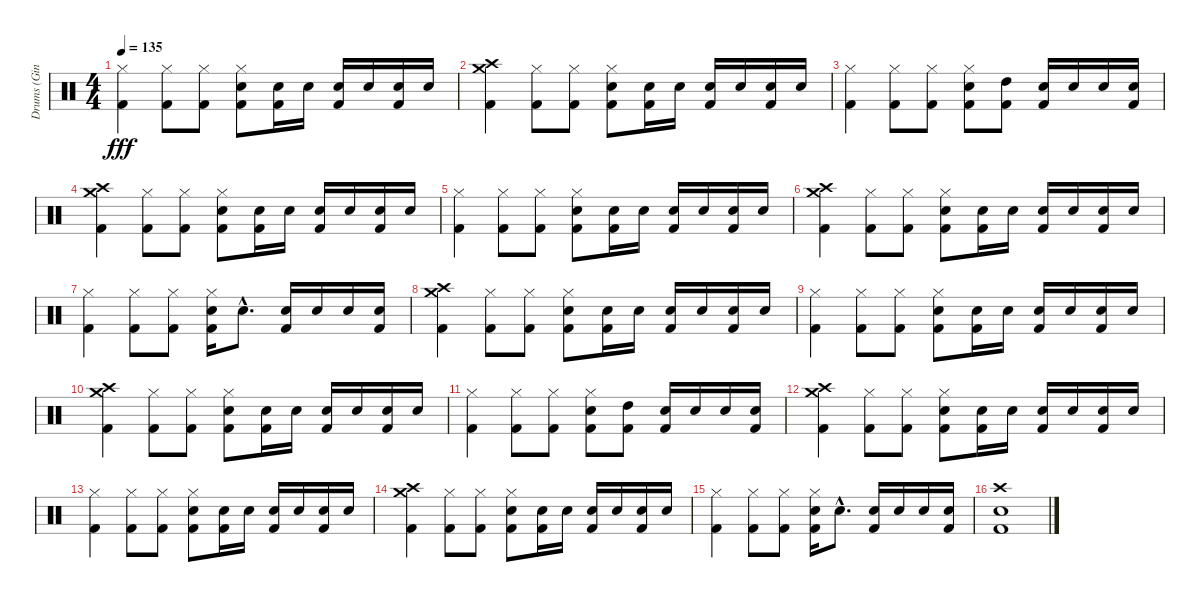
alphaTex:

\track ("Drums (Ginger Fish)" "Drums (Gin") {instrument percussion}
\staff {score}
\articulation defaults
\ts (4 4)
\tempo 135
\clef neutral
\ks c
("Hi-Hat (closed)" "Kick (hit) 2").4{dy fff} ("Hi-Hat (closed)" "Kick (hit) 2").8 ("Hi-Hat (closed)" "Kick (hit) 2").8 ("Hi-Hat (closed)" "Electric Snare (hit)" "Kick (hit) 2").8 ("Electric Snare (hit)" "Kick (hit) 2").16 "Electric Snare (hit)".16 ("Electric Snare (hit)" "Kick (hit) 2").16 "Electric Snare (hit)".16 ("Electric Snare (hit)" "Kick (hit) 2").16 "Electric Snare (hit)".16 |
("Crash high (hit)" "Crash medium (hit)" "Kick (hit) 2").4 ("Hi-Hat (closed)" "Kick (hit) 2").8 ("Hi-Hat (closed)" "Kick (hit) 2").8 ("Hi-Hat (closed)" "Electric Snare (hit)" "Kick (hit) 2").8 ("Electric Snare (hit)" "Kick (hit) 2").16 "Electric Snare (hit)".16 ("Electric Snare (hit)" "Kick (hit) 2").16 "Electric Snare (hit)".16 ("Electric Snare (hit)" "Kick (hit) 2").16 "Electric Snare (hit)".16 |
("Hi-Hat (closed)" "Kick (hit) 2").4 ("Hi-Hat (closed)" "Kick (hit) 2").8 ("Hi-Hat (closed)" "Kick (hit) 2").8 ("Hi-Hat (closed)" "Electric Snare (hit)" "Kick (hit) 2").8 ("High Tom (hit)" "Kick (hit) 2").8 ("Electric Snare (hit)" "Kick (hit) 2").16 "Electric Snare (hit)".16 "Electric Snare (hit)".16 ("Electric Snare (hit)" "Kick (hit) 2").16 |
("Crash high (hit)" "Crash medium (hit)" "Kick (hit) 2").4 ("Hi-Hat (closed)" "Kick (hit) 2").8 ("Hi-Hat (closed)" "Kick (hit) 2").8 ("Hi-Hat (closed)" "Electric Snare (hit)" "Kick (hit) 2").8 ("Electric Snare (hit)" "Kick (hit) 2").16 "Electric Snare (hit)".16 ("Electric Snare (hit)" "Kick (hit) 2").16 "Electric Snare (hit)".16 ("Electric Snare (hit)" "Kick (hit) 2").16 "Electric Snare (hit)".16 |
("Hi-Hat (closed)" "Kick (hit) 2").4 ("Hi-Hat (closed)" "Kick (hit) 2").8 ("Hi-Hat (closed)" "Kick (hit) 2").8 ("Hi-Hat (closed)" "Electric Snare (hit)" "Kick (hit) 2").8 ("Electric Snare (hit)" "Kick (hit) 2").16 "Electric Snare (hit)".16 ("Electric Snare (hit)" "Kick (hit) 2").16 "Electric Snare (hit)".16 ("Electric Snare (hit)" "Kick (hit) 2").16 "Electric Snare (hit)".16 |
("Crash high (hit)" "Crash medium (hit)" "Kick (hit) 2").4 ("Hi-Hat (closed)" "Kick (hit) 2").8 ("Hi-Hat (closed)" "Kick (hit) 2").8 ("Hi-Hat (closed)" "Electric Snare (hit)" "Kick (hit) 2").8 ("Electric Snare (hit)" "Kick (hit) 2").16 "Electric Snare (hit)".16 ("Electric Snare (hit)" "Kick (hit) 2").16 "Electric Snare (hit)".16 ("Electric Snare (hit)" "Kick (hit) 2").16 "Electric Snare (hit)".16 |
("Hi-Hat (closed)" "Kick (hit) 2").4 ("Hi-Hat (closed)" "Kick (hit) 2").8 ("Hi-Hat (closed)" "Kick (hit) 2").8 ("Hi-Hat (closed)" "Electric Snare (hit)" "Kick (hit) 2").16 "Electric Snare (hit)"{hac}.8{d} ("Electric Snare (hit)" "Kick (hit) 2").16 "Electric Snare (hit)".16 "Electric Snare (hit)".16 ("Electric Snare (hit)" "Kick (hit) 2").16 |
("Crash high (hit)" "Crash medium (hit)" "Kick (hit) 2").4 ("Hi-Hat (closed)" "Kick (hit) 2").8 ("Hi-Hat (closed)" "Kick (hit) 2").8 ("Hi-Hat (closed)" "Electric Snare (hit)" "Kick (hit) 2").8 ("Electric Snare (hit)" "Kick (hit) 2").16 "Electric Snare (hit)".16 ("Electric Snare (hit)" "Kick (hit) 2").16 "Electric Snare (hit)".16 ("Electric Snare (hit)" "Kick (hit) 2").16 "Electric Snare (hit)".16 |
("Hi-Hat (closed)" "Kick (hit) 2").4 ("Hi-Hat (closed)" "Kick (hit) 2").8 ("Hi-Hat (closed)" "Kick (hit) 2").8 ("Hi-Hat (closed)" "Electric Snare (hit)" "Kick (hit) 2").8 ("Electric Snare (hit)" "Kick (hit) 2").16 "Electric Snare (hit)".16 ("Electric Snare (hit)" "Kick (hit) 2").16 "Electric Snare (hit)".16 ("Electric Snare (hit)" "Kick (hit) 2").16 "Electric Snare (hit)".16 |
("Crash high (hit)" "Crash medium (hit)" "Kick (hit) 2").4 ("Hi-Hat (closed)" "Kick (hit) 2").8 ("Hi-Hat (closed)" "Kick (hit) 2").8 ("Hi-Hat (closed)" "Electric Snare (hit)" "Kick (hit) 2").8 ("Electric Snare (hit)" "Kick (hit) 2").16 "Electric Snare (hit)".16 ("Electric Snare (hit)" "Kick (hit) 2").16 "Electric Snare (hit)".16 ("Electric Snare (hit)" "Kick (hit) 2").16 "Electric Snare (hit)".16 |
("Hi-Hat (closed)" "Kick (hit) 2").4 ("Hi-Hat (closed)" "Kick (hit) 2").8 ("Hi-Hat (closed)" "Kick (hit) 2").8 ("Hi-Hat (closed)" "Electric Snare (hit)" "Kick (hit) 2").8 ("High Tom (hit)" "Kick (hit) 2").8 ("Electric Snare (hit)" "Kick (hit) 2").16 "Electric Snare (hit)".16 "Electric Snare (hit)".16 ("Electric Snare (hit)" "Kick (hit) 2").16 |
("Crash high (hit)" "Crash medium (hit)" "Kick (hit) 2").4 ("Hi-Hat (closed)" "Kick (hit) 2").8 ("Hi-Hat (closed)" "Kick (hit) 2").8 ("Hi-Hat (closed)" "Electric Snare (hit)" "Kick (hit) 2").8 ("Electric Snare (hit)" "Kick (hit) 2").16 "Electric Snare (hit)".16 ("Electric Snare (hit)" "Kick (hit) 2").16 "Electric Snare (hit)".16 ("Electric Snare (hit)" "Kick (hit) 2").16 "Electric Snare (hit)".16 |
("Hi-Hat (closed)" "Kick (hit) 2").4 ("Hi-Hat (closed)" "Kick (hit) 2").8 ("Hi-Hat (closed)" "Kick (hit) 2").8 ("Hi-Hat (closed)" "Electric Snare (hit)" "Kick (hit) 2").8 ("Electric Snare (hit)" "Kick (hit) 2").16 "Electric Snare (hit)".16 ("Electric Snare (hit)" "Kick (hit) 2").16 "Electric Snare (hit)".16 ("Electric Snare (hit)" "Kick (hit) 2").16 "Electric Snare (hit)".16 |
("Crash high (hit)" "Crash medium (hit)" "Kick (hit) 2").4 ("Hi-Hat (closed)" "Kick (hit) 2").8 ("Hi-Hat (closed)" "Kick (hit) 2").8 ("Hi-Hat (closed)" "Electric Snare (hit)" "Kick (hit) 2").8 ("Electric Snare (hit)" "Kick (hit) 2").16 "Electric Snare (hit)".16 ("Electric Snare (hit)" "Kick (hit) 2").16 "Electric Snare (hit)".16 ("Electric Snare (hit)" "Kick (hit) 2").16 "Electric Snare (hit)".16 |
("Hi-Hat (closed)" "Kick (hit) 2").4 ("Hi-Hat (closed)" "Kick (hit) 2").8 ("Hi-Hat (closed)" "Kick (hit) 2").8 ("Hi-Hat (closed)" "Electric Snare (hit)" "Kick (hit) 2").16 "Electric Snare (hit)"{hac}.8{d} ("Electric Snare (hit)" "Kick (hit) 2").16 "Electric Snare (hit)".16 "Electric Snare (hit)".16 ("Electric Snare (hit)" "Kick (hit) 2").16 |
("Crash high (hit)" "Electric Snare (hit)" "Kick (hit) 2").1
